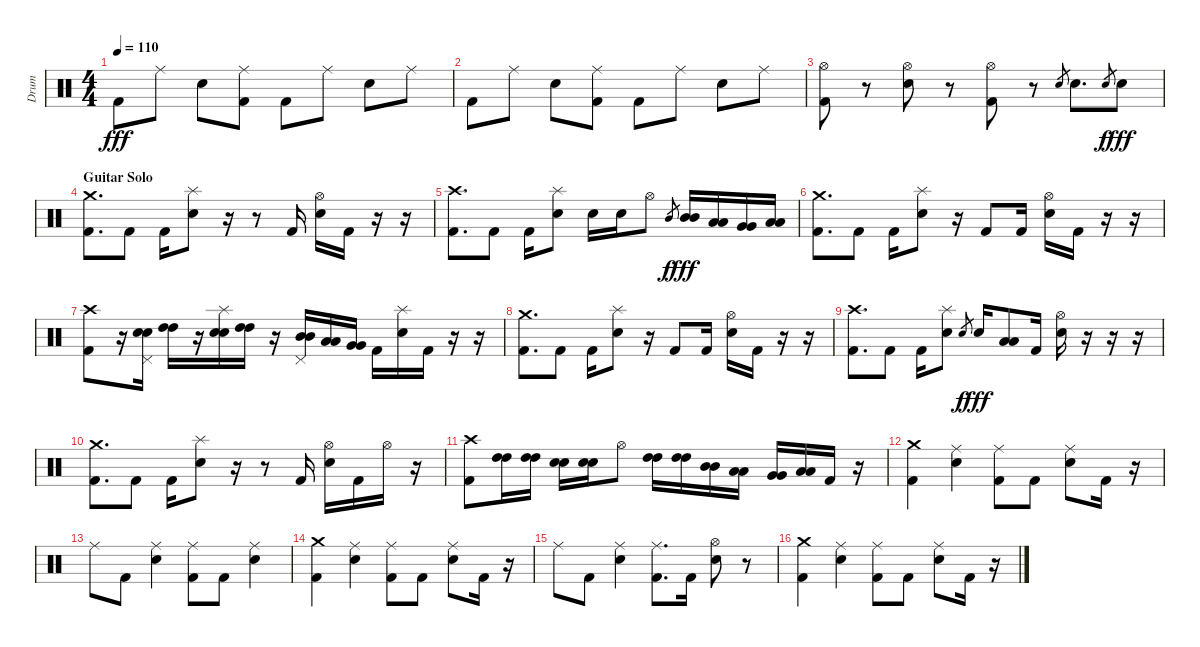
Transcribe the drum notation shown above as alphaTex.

\track ("Drum" "Drum") {instrument percussion}
\staff {score}
\articulation defaults
\ts (4 4)
\tempo 110
\clef neutral
\ks c "Kick (hit) 2".8{dy fff} "Ride (middle)".8 "Electric Snare (hit)".8
("Ride (middle)" "Kick (hit) 2").8 "Kick (hit) 2".8 "Ride (middle)".8 "Electric Snare (hit)".8 "Ride (middle)".8 |
"Kick (hit) 2".8 "Ride (middle)".8 "Electric Snare (hit)".8 ("Ride (middle)" "Kick (hit) 2").8 "Kick (hit) 2".8 "Ride (middle)".8 "Electric Snare (hit)".8 "Ride (middle)".8 |
("Hi-Hat (open)" "Kick (hit) 2").8 r.8 ("Hi-Hat (open)" "Electric Snare (hit)").8 r.8 ("Hi-Hat (open)" "Kick (hit) 2").8 r.8 "Electric Snare (hit)".8{gr} "Electric Snare (hit)".8{d} "Electric Snare (hit)".8{gr dy f} "Electric Snare (hit)".8{dy fff} |
\section ("" "Guitar Solo")
("Crash medium (hit)" "Kick (hit) 2").8{d} "Kick (hit) 2".8 "Kick (hit) 2".16 ("Splash (hit)" "Electric Snare (hit)").8 r.16 r.8 "Kick (hit) 2".16 ("Hi-Hat (open)" "Electric Snare (hit)").16 "Kick (hit) 2".16 r.16 r.16 |
("Crash high (hit)" "Kick (hit) 2").8{d} "Kick (hit) 2".8 "Kick (hit) 2".16 ("Splash (hit)" "Electric Snare (hit)").8 "Electric Snare (hit)".16 "Electric Snare (hit)".16 "Hi-Hat (open)".8 "Mid Tom (hit)".8{gr dy f} ("Mid Tom (hit)" "Mid Tom (hit)").16{dy fff} ("Low Tom (hit)" "Low Tom (hit)").16 ("Very Low Tom (hit)" "Very Low Tom (hit)").16 ("Low Floor Tom (hit)" "Low Floor Tom (hit)").16 |
("Crash medium (hit)" "Kick (hit) 2").8{d} "Kick (hit) 2".8 "Kick (hit) 2".16 ("Splash (hit)" "Electric Snare (hit)").8 r.16 "Kick (hit) 2".8 "Kick (hit) 2".16 ("Hi-Hat (open)" "Electric Snare (hit)").16 "Kick (hit) 2".16 r.16 r.16 |
("Crash high (hit)" "Kick (hit) 2").8 r.16 ("Pedal Hi-Hat (hit)" "Electric Snare (hit)" "Electric Snare (hit)").16 ("High Tom (hit)" "High Tom (hit)").16 r.16 ("Splash (hit)" "Electric Snare (hit)" "Electric Snare (hit)").16 ("High Tom (hit)" "High Tom (hit)").16 r.16 ("Pedal Hi-Hat (hit)" "Mid Tom (hit)" "Mid Tom (hit)").16 ("Low Tom (hit)" "Low Tom (hit)").16 ("Very Low Tom (hit)" "Very Low Tom (hit)").16 "Kick (hit) 2".16 ("Splash (hit)" "Electric Snare (hit)").16 "Kick (hit) 2".16 r.16 r.16 |
("Crash medium (hit)" "Kick (hit) 2").8{d} "Kick (hit) 2".8 "Kick (hit) 2".16 ("Splash (hit)" "Electric Snare (hit)").8 r.16 "Kick (hit) 2".8 "Kick (hit) 2".16 ("Hi-Hat (open)" "Electric Snare (hit)").16 "Kick (hit) 2".16 r.16 r.16 |
("Crash high (hit)" "Kick (hit) 2").8{d} "Kick (hit) 2".8 "Kick (hit) 2".16 ("Splash (hit)" "Electric Snare (hit)").8 "Electric Snare (hit)".8{gr dy f} "Electric Snare (hit)".16{dy fff} ("Low Tom (hit)" "Low Tom (hit)").8 "Kick (hit) 2".16 ("Hi-Hat (open)" "Electric Snare (hit)").16 r.16 r.16 r.16 |
("Crash medium (hit)" "Kick (hit) 2").8{d} "Kick (hit) 2".8 "Kick (hit) 2".16 ("Splash (hit)" "Electric Snare (hit)").8 r.16 r.8 "Kick (hit) 2".16 ("Hi-Hat (open)" "Electric Snare (hit)").16 "Kick (hit) 2".16 "Hi-Hat (open)".16 r.16 |
("Crash high (hit)" "Kick (hit) 2").8 ("High Tom (hit)" "High Tom (hit)").16 ("High Tom (hit)" "High Tom (hit)").16 ("Electric Snare (hit)" "Electric Snare (hit)").16 ("Electric Snare (hit)" "Electric Snare (hit)").16 "Hi-Hat (open)".8 ("High Tom (hit)" "High Tom (hit)").16 ("High Tom (hit)" "High Tom (hit)").16 ("Mid Tom (hit)" "Mid Tom (hit)").16 ("Low Tom (hit)" "Low Tom (hit)").16 ("Very Low Tom (hit)" "Very Low Tom (hit)").16 ("Low Floor Tom (hit)" "Low Floor Tom (hit)").16 "Kick (hit) 2".16 r.16 |
("Crash medium (hit)" "Kick (hit) 2").4 ("Ride (middle)" "Electric Snare (hit)").4 ("Ride (middle)" "Kick (hit) 2").8 "Kick (hit) 2".8 ("Ride (middle)" "Electric Snare (hit)").8 "Kick (hit) 2".16 r.16 |
"Ride (middle)".8 "Kick (hit) 2".8 ("Ride (middle)" "Electric Snare (hit)").4 ("Ride (middle)" "Kick (hit) 2").8 "Kick (hit) 2".8 ("Ride (middle)" "Electric Snare (hit)").4 |
("Crash medium (hit)" "Kick (hit) 2").4 ("Ride (middle)" "Electric Snare (hit)").4 ("Ride (middle)" "Kick (hit) 2").8 "Kick (hit) 2".8 ("Ride (middle)" "Electric Snare (hit)").8 "Kick (hit) 2".16 r.16 |
"Ride (middle)".8 "Kick (hit) 2".8 ("Ride (middle)" "Electric Snare (hit)").4 ("Ride (middle)" "Kick (hit) 2").8{d} "Kick (hit) 2".16 ("Hi-Hat (open)" "Electric Snare (hit)").8 r.8 |
("Crash medium (hit)" "Kick (hit) 2").4 ("Ride (middle)" "Electric Snare (hit)").4 ("Ride (middle)" "Kick (hit) 2").8 "Kick (hit) 2".8 ("Ride (middle)" "Electric Snare (hit)").8 "Kick (hit) 2".16 r.16
